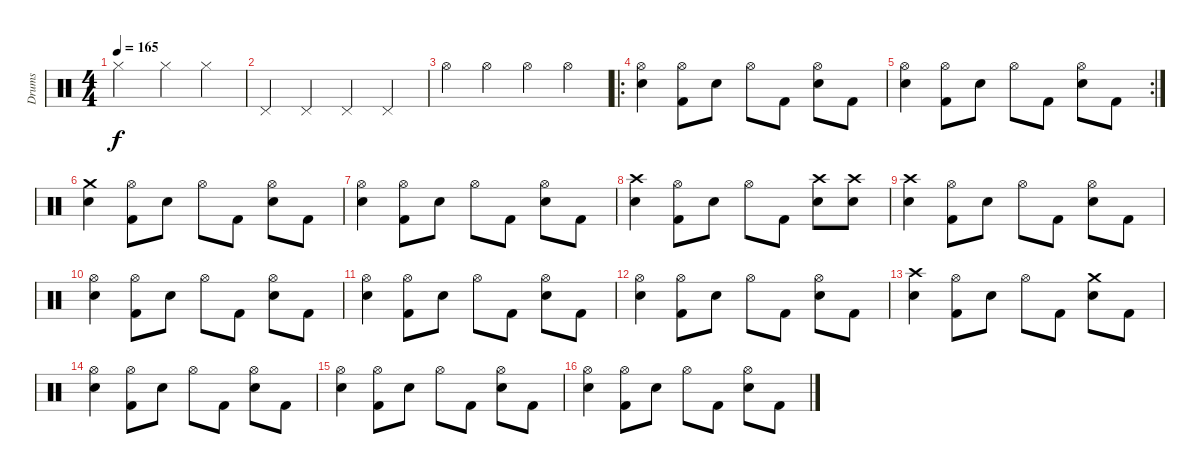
\track ("Drums" "Drums") {instrument percussion}
\staff {score}
\articulation defaults
\ts (4 4)
\tempo 165
\clef neutral
\ks c "Hi-Hat (closed)".2{dy f} "Hi-Hat (closed)".4 "Hi-Hat (closed)".4
|
"Pedal Hi-Hat (hit)".4 "Pedal Hi-Hat (hit)".4 "Pedal Hi-Hat (hit)".4 "Pedal Hi-Hat (hit)".4 |
"Hi-Hat (open)".4 "Hi-Hat (open)".4 "Hi-Hat (open)".4 "Hi-Hat (open)".4 |
\ro
("Hi-Hat (open)" "Snare (hit) 2").4 ("Hi-Hat (open)" "Kick (hit) 2").8 "Snare (hit) 2".8 "Hi-Hat (open)".8 "Kick (hit) 2".8 ("Hi-Hat (open)" "Snare (hit) 2").8 "Kick (hit) 2".8 |
\rc 2
("Hi-Hat (open)" "Snare (hit) 2").4 ("Hi-Hat (open)" "Kick (hit) 2").8 "Snare (hit) 2".8 "Hi-Hat (open)".8 "Kick (hit) 2".8 ("Hi-Hat (open)" "Snare (hit) 2").8 "Kick (hit) 2".8 |
("Crash medium (hit)" "Snare (hit) 2").4 ("Hi-Hat (open)" "Kick (hit) 2").8 "Snare (hit) 2".8 "Hi-Hat (open)".8 "Kick (hit) 2".8 ("Hi-Hat (open)" "Snare (hit) 2").8 "Kick (hit) 2".8 |
("Hi-Hat (open)" "Snare (hit) 2").4 ("Hi-Hat (open)" "Kick (hit) 2").8 "Snare (hit) 2".8 "Hi-Hat (open)".8 "Kick (hit) 2".8 ("Hi-Hat (open)" "Snare (hit) 2").8 "Kick (hit) 2".8 |
("Crash high (hit)" "Snare (hit) 2").4 ("Hi-Hat (open)" "Kick (hit) 2").8 "Snare (hit) 2".8 "Hi-Hat (open)".8 "Kick (hit) 2".8 ("Crash high (hit)" "Snare (hit) 2").8 ("Crash high (hit)" "Snare (hit) 2").8 |
("Crash high (hit)" "Snare (hit) 2").4 ("Hi-Hat (open)" "Kick (hit) 2").8 "Snare (hit) 2".8 "Hi-Hat (open)".8 "Kick (hit) 2".8 ("Hi-Hat (open)" "Snare (hit) 2").8 "Kick (hit) 2".8 |
("Hi-Hat (open)" "Snare (hit) 2").4 ("Hi-Hat (open)" "Kick (hit) 2").8 "Snare (hit) 2".8 "Hi-Hat (open)".8 "Kick (hit) 2".8 ("Hi-Hat (open)" "Snare (hit) 2").8 "Kick (hit) 2".8 |
("Hi-Hat (open)" "Snare (hit) 2").4 ("Hi-Hat (open)" "Kick (hit) 2").8 "Snare (hit) 2".8 "Hi-Hat (open)".8 "Kick (hit) 2".8 ("Hi-Hat (open)" "Snare (hit) 2").8 "Kick (hit) 2".8 |
("Hi-Hat (open)" "Snare (hit) 2").4 ("Hi-Hat (open)" "Kick (hit) 2").8 "Snare (hit) 2".8 "Hi-Hat (open)".8 "Kick (hit) 2".8 ("Hi-Hat (open)" "Snare (hit) 2").8 "Kick (hit) 2".8 |
("Crash high (hit)" "Snare (hit) 2").4 ("Hi-Hat (open)" "Kick (hit) 2").8 "Snare (hit) 2".8 "Hi-Hat (open)".8 "Kick (hit) 2".8 ("Crash medium (hit)" "Snare (hit) 2").8 "Kick (hit) 2".8 |
("Hi-Hat (open)" "Snare (hit) 2").4 ("Hi-Hat (open)" "Kick (hit) 2").8 "Snare (hit) 2".8 "Hi-Hat (open)".8 "Kick (hit) 2".8 ("Hi-Hat (open)" "Snare (hit) 2").8 "Kick (hit) 2".8 |
("Hi-Hat (open)" "Snare (hit) 2").4 ("Hi-Hat (open)" "Kick (hit) 2").8 "Snare (hit) 2".8 "Hi-Hat (open)".8 "Kick (hit) 2".8 ("Hi-Hat (open)" "Snare (hit) 2").8 "Kick (hit) 2".8 |
("Hi-Hat (open)" "Snare (hit) 2").4 ("Hi-Hat (open)" "Kick (hit) 2").8 "Snare (hit) 2".8 "Hi-Hat (open)".8 "Kick (hit) 2".8 ("Hi-Hat (open)" "Snare (hit) 2").8 "Kick (hit) 2".8
